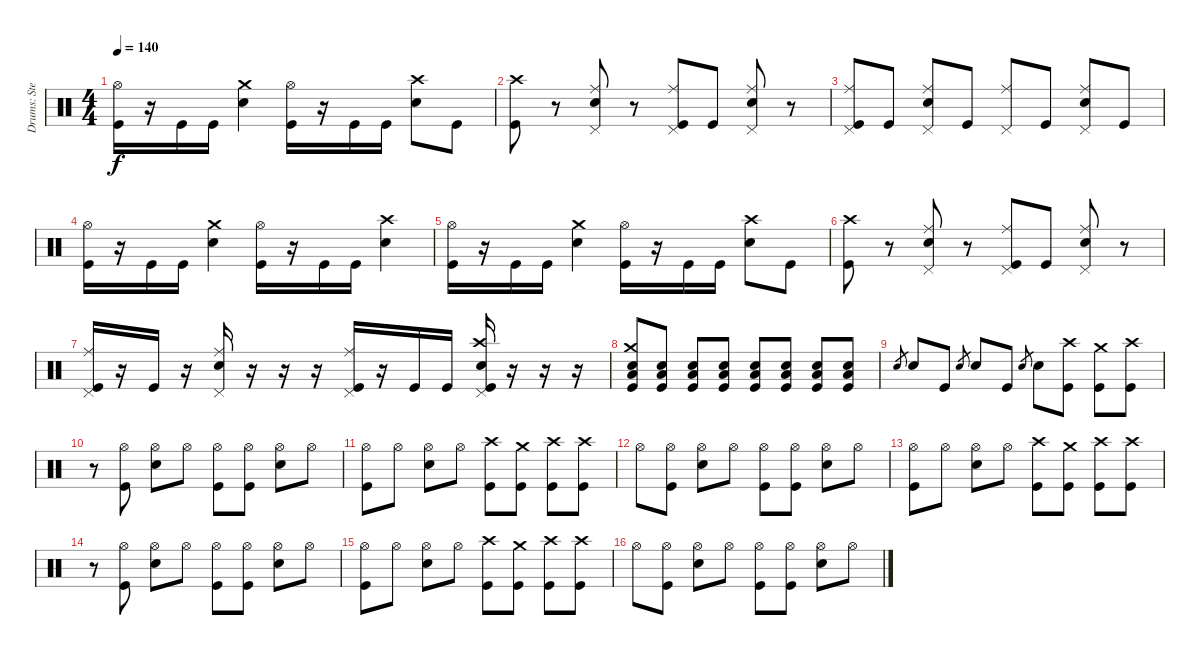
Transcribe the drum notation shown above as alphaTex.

\track ("Drums: Steven Adler" "Drums: Ste") {instrument percussion}
\staff {score}
\articulation defaults
\ts (4 4)
\tempo 140
\clef neutral
\ks c
("Hi-Hat (open)" "Kick (hit)").16{dy f} r.16 "Kick (hit)".16 "Kick (hit)".16 ("Crash medium (hit)" "Electric Snare (hit)").4 ("Hi-Hat (open)" "Kick (hit)").16 r.16 "Kick (hit)".16 "Kick (hit)".16 ("Crash high (hit)" "Electric Snare (hit)").8 "Kick (hit)".8 |
("Crash high (hit)" "Kick (hit)").8 r.8 ("Ride (middle)" "Pedal Hi-Hat (hit)" "Electric Snare (hit)").8 r.8 ("Ride (middle)" "Pedal Hi-Hat (hit)" "Kick (hit)").8 "Kick (hit)".8 ("Ride (middle)" "Pedal Hi-Hat (hit)" "Electric Snare (hit)").8 r.8 |
("Ride (middle)" "Pedal Hi-Hat (hit)" "Kick (hit)").8 "Kick (hit)".8 ("Ride (middle)" "Pedal Hi-Hat (hit)" "Electric Snare (hit)").8 "Kick (hit)".8 ("Ride (middle)" "Pedal Hi-Hat (hit)").8 "Kick (hit)".8 ("Ride (middle)" "Pedal Hi-Hat (hit)" "Electric Snare (hit)").8 "Kick (hit)".8 |
("Hi-Hat (open)" "Kick (hit)").16 r.16 "Kick (hit)".16 "Kick (hit)".16 ("Crash medium (hit)" "Electric Snare (hit)").4 ("Hi-Hat (open)" "Kick (hit)").16 r.16 "Kick (hit)".16 "Kick (hit)".16 ("Crash high (hit)" "Electric Snare (hit)").4 |
("Hi-Hat (open)" "Kick (hit)").16 r.16 "Kick (hit)".16 "Kick (hit)".16 ("Crash medium (hit)" "Electric Snare (hit)").4 ("Hi-Hat (open)" "Kick (hit)").16 r.16 "Kick (hit)".16 "Kick (hit)".16 ("Crash high (hit)" "Electric Snare (hit)").8 "Kick (hit)".8 |
("Crash high (hit)" "Kick (hit)").8 r.8 ("Ride (middle)" "Pedal Hi-Hat (hit)" "Electric Snare (hit)").8 r.8 ("Ride (middle)" "Pedal Hi-Hat (hit)" "Kick (hit)").8 "Kick (hit)".8 ("Ride (middle)" "Pedal Hi-Hat (hit)" "Electric Snare (hit)").8 r.8 |
("Ride (middle)" "Pedal Hi-Hat (hit)" "Kick (hit)").16 r.16 "Kick (hit)".16 r.16 ("Ride (middle)" "Pedal Hi-Hat (hit)" "Electric Snare (hit)").16 r.16 r.16 r.16 ("Ride (middle)" "Pedal Hi-Hat (hit)" "Kick (hit)").16 r.16 "Kick (hit)".16 "Kick (hit)".16 ("Crash high (hit)" "Pedal Hi-Hat (hit)" "Electric Snare (hit)" "Kick (hit)").16 r.16 r.16 r.16 |
("Crash medium (hit)" "Electric Snare (hit)" "Low Floor Tom (hit)" "Kick (hit)").8 ("Electric Snare (hit)" "Low Floor Tom (hit)" "Kick (hit)").8 ("Electric Snare (hit)" "Low Floor Tom (hit)" "Kick (hit)").8 ("Electric Snare (hit)" "Low Floor Tom (hit)" "Kick (hit)").8 ("Electric Snare (hit)" "Low Floor Tom (hit)" "Kick (hit)").8 ("Electric Snare (hit)" "Low Floor Tom (hit)" "Kick (hit)").8 ("Electric Snare (hit)" "Low Floor Tom (hit)" "Kick (hit)").8 ("Electric Snare (hit)" "Low Floor Tom (hit)" "Kick (hit)").8 |
"Electric Snare (hit)".8{gr} "Electric Snare (hit)".8 "Kick (hit)".8 "Electric Snare (hit)".8{gr} "Electric Snare (hit)".8 "Kick (hit)".8 "Electric Snare (hit)".8{gr} "Electric Snare (hit)".8 ("Crash high (hit)" "Kick (hit)").8 ("Crash medium (hit)" "Kick (hit)").8 ("Crash high (hit)" "Kick (hit)").8 |
r.8 ("Hi-Hat (open)" "Kick (hit)").8 ("Hi-Hat (open)" "Electric Snare (hit)").8 "Hi-Hat (open)".8 ("Hi-Hat (open)" "Kick (hit)").8 ("Hi-Hat (open)" "Kick (hit)").8 ("Hi-Hat (open)" "Electric Snare (hit)").8 "Hi-Hat (open)".8 |
("Hi-Hat (open)" "Kick (hit)").8 "Hi-Hat (open)".8 ("Hi-Hat (open)" "Electric Snare (hit)").8 "Hi-Hat (open)".8 ("Crash high (hit)" "Kick (hit)").8 ("Crash medium (hit)" "Kick (hit)").8 ("Crash high (hit)" "Kick (hit)").8 ("Crash high (hit)" "Kick (hit)").8 |
"Hi-Hat (open)".8 ("Hi-Hat (open)" "Kick (hit)").8 ("Hi-Hat (open)" "Electric Snare (hit)").8 "Hi-Hat (open)".8 ("Hi-Hat (open)" "Kick (hit)").8 ("Hi-Hat (open)" "Kick (hit)").8 ("Hi-Hat (open)" "Electric Snare (hit)").8 "Hi-Hat (open)".8 |
("Hi-Hat (open)" "Kick (hit)").8 "Hi-Hat (open)".8 ("Hi-Hat (open)" "Electric Snare (hit)").8 "Hi-Hat (open)".8 ("Crash high (hit)" "Kick (hit)").8 ("Crash medium (hit)" "Kick (hit)").8 ("Crash high (hit)" "Kick (hit)").8 ("Crash high (hit)" "Kick (hit)").8 |
r.8 ("Hi-Hat (open)" "Kick (hit)").8 ("Hi-Hat (open)" "Electric Snare (hit)").8 "Hi-Hat (open)".8 ("Hi-Hat (open)" "Kick (hit)").8 ("Hi-Hat (open)" "Kick (hit)").8 ("Hi-Hat (open)" "Electric Snare (hit)").8 "Hi-Hat (open)".8 |
("Hi-Hat (open)" "Kick (hit)").8 "Hi-Hat (open)".8 ("Hi-Hat (open)" "Electric Snare (hit)").8 "Hi-Hat (open)".8 ("Crash high (hit)" "Kick (hit)").8 ("Crash medium (hit)" "Kick (hit)").8 ("Crash high (hit)" "Kick (hit)").8 ("Crash high (hit)" "Kick (hit)").8 |
"Hi-Hat (open)".8 ("Hi-Hat (open)" "Kick (hit)").8 ("Hi-Hat (open)" "Electric Snare (hit)").8 "Hi-Hat (open)".8 ("Hi-Hat (open)" "Kick (hit)").8 ("Hi-Hat (open)" "Kick (hit)").8 ("Hi-Hat (open)" "Electric Snare (hit)").8 "Hi-Hat (open)".8
